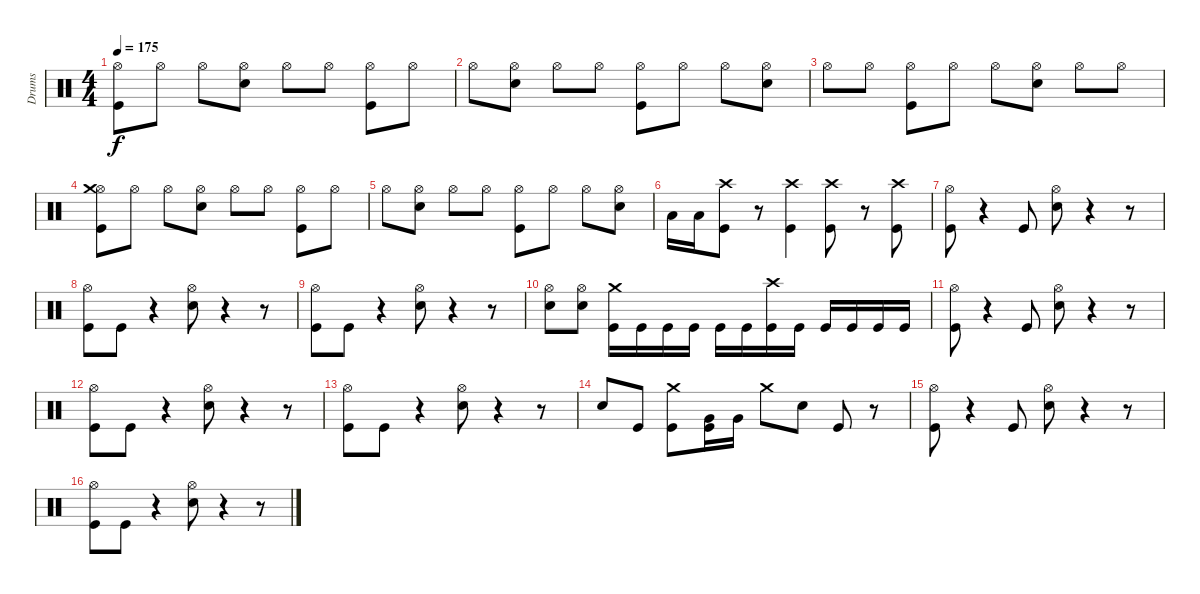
\track ("Drums" "Drums") {instrument percussion}
\staff {score}
\articulation defaults
\ts (4 4)
\tempo 175
\clef neutral
\ks c
("Hi-Hat (open)" "Kick (hit)").8{dy f} "Hi-Hat (open)".8 "Hi-Hat (open)".8 ("Hi-Hat (open)" "Snare (hit) 2").8 "Hi-Hat (open)".8 "Hi-Hat (open)".8 ("Hi-Hat (open)" "Kick (hit)").8 "Hi-Hat (open)".8 |
"Hi-Hat (open)".8 ("Hi-Hat (open)" "Snare (hit) 2").8 "Hi-Hat (open)".8 "Hi-Hat (open)".8 ("Hi-Hat (open)" "Kick (hit)").8 "Hi-Hat (open)".8 "Hi-Hat (open)".8 ("Hi-Hat (open)" "Snare (hit) 2").8 |
"Hi-Hat (open)".8 "Hi-Hat (open)".8 ("Hi-Hat (open)" "Kick (hit)").8 "Hi-Hat (open)".8 "Hi-Hat (open)".8 ("Hi-Hat (open)" "Snare (hit) 2").8 "Hi-Hat (open)".8 "Hi-Hat (open)".8 |
("Hi-Hat (open)" "Crash medium (hit)" "Kick (hit)").8 "Hi-Hat (open)".8 "Hi-Hat (open)".8 ("Hi-Hat (open)" "Snare (hit) 2").8 "Hi-Hat (open)".8 "Hi-Hat (open)".8 ("Hi-Hat (open)" "Kick (hit)").8 "Hi-Hat (open)".8 |
"Hi-Hat (open)".8 ("Hi-Hat (open)" "Snare (hit) 2").8 "Hi-Hat (open)".8 "Hi-Hat (open)".8 ("Hi-Hat (open)" "Kick (hit)").8 "Hi-Hat (open)".8 "Hi-Hat (open)".8 ("Hi-Hat (open)" "Snare (hit) 2").8 |
"Low Tom (hit)".16 "Low Tom (hit)".16 ("Crash high (hit)" "Kick (hit)").8 r.8 ("Crash high (hit)" "Kick (hit)").4 ("Crash high (hit)" "Kick (hit)").8 r.8 ("Crash high (hit)" "Kick (hit)").8 |
("Hi-Hat (open)" "Kick (hit)").8 r.4 "Kick (hit)".8 ("Hi-Hat (open)" "Snare (hit) 2").8 r.4 r.8 |
("Hi-Hat (open)" "Kick (hit)").8 "Kick (hit)".8 r.4 ("Hi-Hat (open)" "Snare (hit) 2").8 r.4 r.8 |
("Hi-Hat (open)" "Kick (hit)").8 "Kick (hit)".8 r.4 ("Hi-Hat (open)" "Snare (hit) 2").8 r.4 r.8 |
("Hi-Hat (open)" "Snare (hit) 2").8 ("Hi-Hat (open)" "Snare (hit) 2").8 ("Crash medium (hit)" "Kick (hit)").16 "Kick (hit)".16 "Kick (hit)".16 "Kick (hit)".16 "Kick (hit)".16 "Kick (hit)".16 ("Crash high (hit)" "Kick (hit)").16 "Kick (hit)".16 "Kick (hit)".16 "Kick (hit)".16 "Kick (hit)".16 "Kick (hit)".16 |
("Hi-Hat (open)" "Kick (hit)").8 r.4 "Kick (hit)".8 ("Hi-Hat (open)" "Snare (hit) 2").8 r.4 r.8 |
("Hi-Hat (open)" "Kick (hit)").8 "Kick (hit)".8 r.4 ("Hi-Hat (open)" "Snare (hit) 2").8 r.4 r.8 |
("Hi-Hat (open)" "Kick (hit)").8 "Kick (hit)".8 r.4 ("Hi-Hat (open)" "Snare (hit) 2").8 r.4 r.8 |
"Snare (hit) 2".8 "Kick (hit)".8 ("Crash medium (hit)" "Kick (hit)").8 ("Kick (hit)" "Very Low Tom (hit)").16 "Very Low Tom (hit)".16 "Crash medium (hit)".8 "Snare (hit) 2".8 "Kick (hit)".8 r.8 |
("Hi-Hat (open)" "Kick (hit)").8 r.4 "Kick (hit)".8 ("Hi-Hat (open)" "Snare (hit) 2").8 r.4 r.8 |
("Hi-Hat (open)" "Kick (hit)").8 "Kick (hit)".8 r.4 ("Hi-Hat (open)" "Snare (hit) 2").8 r.4 r.8
